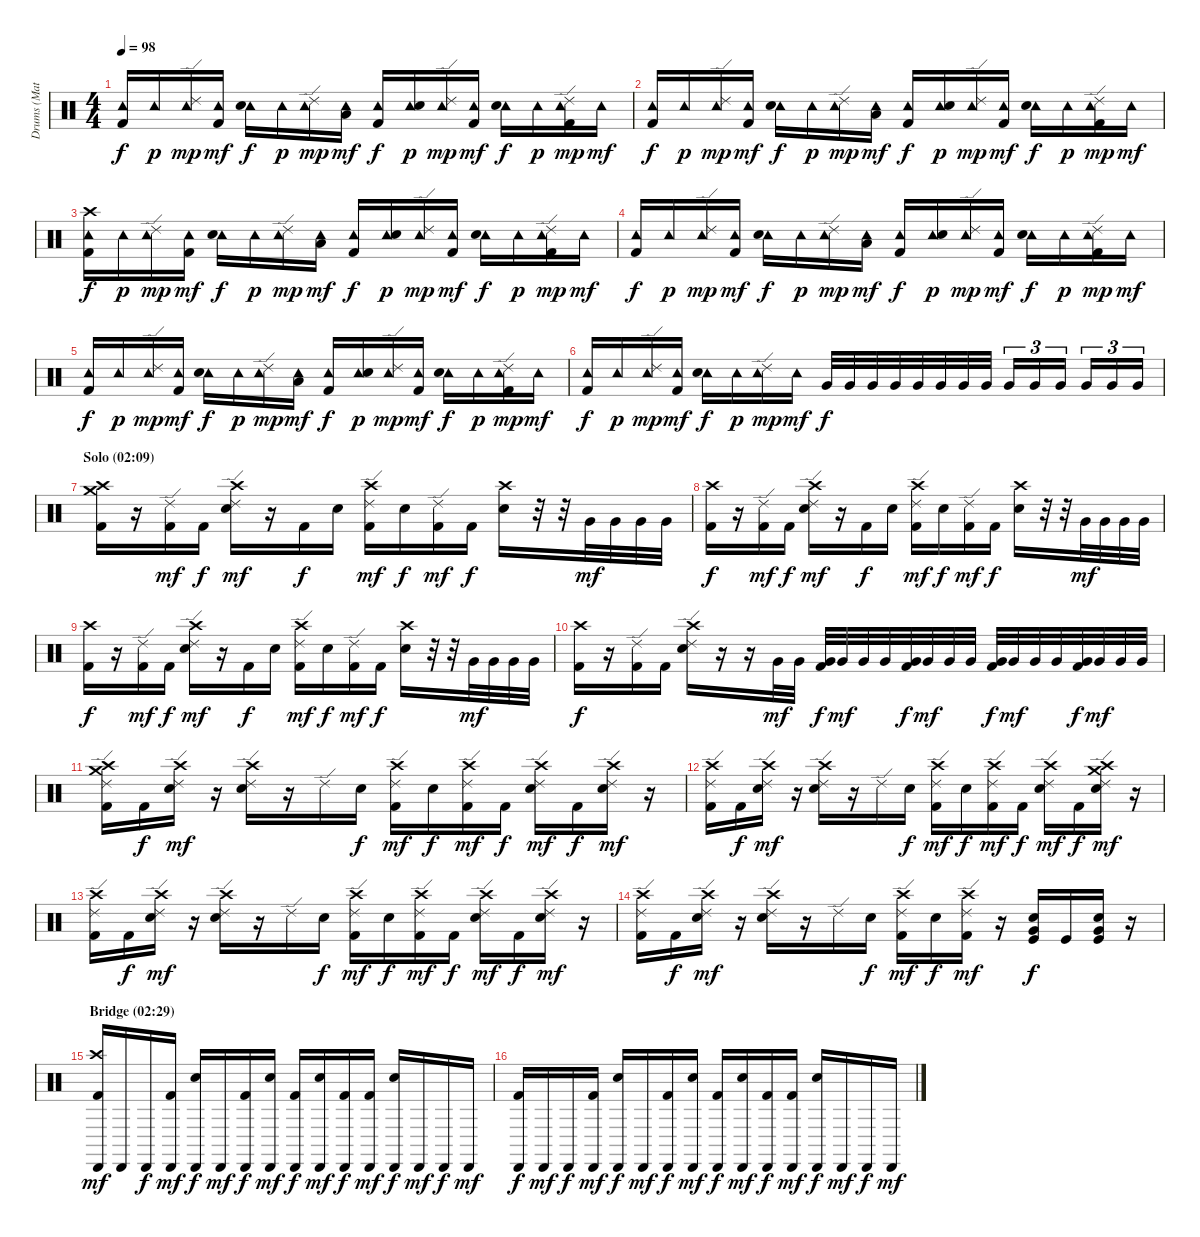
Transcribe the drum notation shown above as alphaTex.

\track ("Drums (Matt Sorum)" "Drums (Mat") {instrument percussion}
\staff {score}
\articulation defaults
\ts (4 4)
\tempo 98
\clef neutral
\ks c
("Tambourine (hit)" "Kick (hit) 2").16{dy f} "Tambourine (hit)".16{dy p} ("Tambourine (hit)" "Ride (edge) 2").16{dy mp} ("Tambourine (hit)" "Kick (hit) 2").16{dy mf} ("Tambourine (hit)" "Electric Snare (hit)").16{dy f} "Tambourine (hit)".16{dy p} ("Tambourine (hit)" "Ride (edge) 2").16{dy mp} ("Tambourine (hit)" "Low Tom (hit)").16{dy mf} ("Tambourine (hit)" "Kick (hit) 2").16{dy f} ("Tambourine (hit)" "Electric Snare (hit)").16{dy p} ("Tambourine (hit)" "Ride (edge) 2").16{dy mp} ("Tambourine (hit)" "Kick (hit) 2").16{dy mf} ("Tambourine (hit)" "Electric Snare (hit)").16{dy f} "Tambourine (hit)".16{dy p} ("Tambourine (hit)" "Ride (edge) 2" "Kick (hit) 2").16{dy mp} "Tambourine (hit)".16{dy mf} |
("Tambourine (hit)" "Kick (hit) 2").16{dy f} "Tambourine (hit)".16{dy p} ("Tambourine (hit)" "Ride (edge) 2").16{dy mp} ("Tambourine (hit)" "Kick (hit) 2").16{dy mf} ("Tambourine (hit)" "Electric Snare (hit)").16{dy f} "Tambourine (hit)".16{dy p} ("Tambourine (hit)" "Ride (edge) 2").16{dy mp} ("Tambourine (hit)" "Low Tom (hit)").16{dy mf} ("Tambourine (hit)" "Kick (hit) 2").16{dy f} ("Tambourine (hit)" "Electric Snare (hit)").16{dy p} ("Tambourine (hit)" "Ride (edge) 2").16{dy mp} ("Tambourine (hit)" "Kick (hit) 2").16{dy mf} ("Tambourine (hit)" "Electric Snare (hit)").16{dy f} "Tambourine (hit)".16{dy p} ("Tambourine (hit)" "Ride (edge) 2" "Kick (hit) 2").16{dy mp} "Tambourine (hit)".16{dy mf} |
("Tambourine (hit)" "Crash high (hit)" "Kick (hit) 2").16{dy f} "Tambourine (hit)".16{dy p} ("Tambourine (hit)" "Ride (edge) 2").16{dy mp} ("Tambourine (hit)" "Kick (hit) 2").16{dy mf} ("Tambourine (hit)" "Electric Snare (hit)").16{dy f} "Tambourine (hit)".16{dy p} ("Tambourine (hit)" "Ride (edge) 2").16{dy mp} ("Tambourine (hit)" "Low Tom (hit)").16{dy mf} ("Tambourine (hit)" "Kick (hit) 2").16{dy f} ("Tambourine (hit)" "Electric Snare (hit)").16{dy p} ("Tambourine (hit)" "Ride (edge) 2").16{dy mp} ("Tambourine (hit)" "Kick (hit) 2").16{dy mf} ("Tambourine (hit)" "Electric Snare (hit)").16{dy f} "Tambourine (hit)".16{dy p} ("Tambourine (hit)" "Ride (edge) 2" "Kick (hit) 2").16{dy mp} "Tambourine (hit)".16{dy mf} |
("Tambourine (hit)" "Kick (hit) 2").16{dy f} "Tambourine (hit)".16{dy p} ("Tambourine (hit)" "Ride (edge) 2").16{dy mp} ("Tambourine (hit)" "Kick (hit) 2").16{dy mf} ("Tambourine (hit)" "Electric Snare (hit)").16{dy f} "Tambourine (hit)".16{dy p} ("Tambourine (hit)" "Ride (edge) 2").16{dy mp} ("Tambourine (hit)" "Low Tom (hit)").16{dy mf} ("Tambourine (hit)" "Kick (hit) 2").16{dy f} ("Tambourine (hit)" "Electric Snare (hit)").16{dy p} ("Tambourine (hit)" "Ride (edge) 2").16{dy mp} ("Tambourine (hit)" "Kick (hit) 2").16{dy mf} ("Tambourine (hit)" "Electric Snare (hit)").16{dy f} "Tambourine (hit)".16{dy p} ("Tambourine (hit)" "Ride (edge) 2" "Kick (hit) 2").16{dy mp} "Tambourine (hit)".16{dy mf} |
("Tambourine (hit)" "Kick (hit) 2").16{dy f} "Tambourine (hit)".16{dy p} ("Tambourine (hit)" "Ride (edge) 2").16{dy mp} ("Tambourine (hit)" "Kick (hit) 2").16{dy mf} ("Tambourine (hit)" "Electric Snare (hit)").16{dy f} "Tambourine (hit)".16{dy p} ("Tambourine (hit)" "Ride (edge) 2").16{dy mp} ("Tambourine (hit)" "Low Tom (hit)").16{dy mf} ("Tambourine (hit)" "Kick (hit) 2").16{dy f} ("Tambourine (hit)" "Electric Snare (hit)").16{dy p} ("Tambourine (hit)" "Ride (edge) 2").16{dy mp} ("Tambourine (hit)" "Kick (hit) 2").16{dy mf} ("Tambourine (hit)" "Electric Snare (hit)").16{dy f} "Tambourine (hit)".16{dy p} ("Tambourine (hit)" "Ride (edge) 2" "Kick (hit) 2").16{dy mp} "Tambourine (hit)".16{dy mf} |
("Tambourine (hit)" "Kick (hit) 2").16{dy f} "Tambourine (hit)".16{dy p} ("Tambourine (hit)" "Ride (edge) 2").16{dy mp} ("Tambourine (hit)" "Kick (hit) 2").16{dy mf} ("Tambourine (hit)" "Electric Snare (hit)").16{dy f} "Tambourine (hit)".16{dy p} ("Tambourine (hit)" "Ride (edge) 2").16{dy mp} "Tambourine (hit)".16{dy mf} "Very Low Tom (hit)".32{dy f} "Very Low Tom (hit)".32 "Very Low Tom (hit)".32 "Very Low Tom (hit)".32 "Very Low Tom (hit)".32 "Very Low Tom (hit)".32 "Very Low Tom (hit)".32 "Very Low Tom (hit)".32 "Very Low Tom (hit)".16{tu (3 2)} "Very Low Tom (hit)".16{tu (3 2)} "Very Low Tom (hit)".16{tu (3 2)} "Very Low Tom (hit)".16{tu (3 2)} "Very Low Tom (hit)".16{tu (3 2)} "Very Low Tom (hit)".16{tu (3 2)} |
\section ("" "Solo (02:09)")
("Crash medium (hit)" "Crash high (hit)" "Kick (hit) 2").16 r.16 ("Ride (edge) 2" "Kick (hit) 2").16{dy mf} "Kick (hit) 2".16{dy f} ("Crash high (hit)" "Ride (edge) 2" "Electric Snare (hit)").16{dy mf} r.16 "Kick (hit) 2".16{dy f} "Electric Snare (hit)".16 ("Crash high (hit)" "Ride (edge) 2" "Kick (hit) 2").16{dy mf} "Electric Snare (hit)".16{dy f} ("Ride (edge) 2" "Kick (hit) 2").16{dy mf} "Kick (hit) 2".16{dy f} ("Crash high (hit)" "Electric Snare (hit)").16 r.32 r.32 "Very Low Tom (hit)".32{dy mf} "Very Low Tom (hit)".32 "Very Low Tom (hit)".32 "Very Low Tom (hit)".32 |
("Crash high (hit)" "Kick (hit) 2").16{dy f} r.16 ("Ride (edge) 2" "Kick (hit) 2").16{dy mf} "Kick (hit) 2".16{dy f} ("Crash high (hit)" "Ride (edge) 2" "Electric Snare (hit)").16{dy mf} r.16 "Kick (hit) 2".16{dy f} "Electric Snare (hit)".16 ("Crash high (hit)" "Ride (edge) 2" "Kick (hit) 2").16{dy mf} "Electric Snare (hit)".16{dy f} ("Ride (edge) 2" "Kick (hit) 2").16{dy mf} "Kick (hit) 2".16{dy f} ("Crash high (hit)" "Electric Snare (hit)").16 r.32 r.32 "Very Low Tom (hit)".32{dy mf} "Very Low Tom (hit)".32 "Very Low Tom (hit)".32 "Very Low Tom (hit)".32 |
("Crash high (hit)" "Kick (hit) 2").16{dy f} r.16 ("Ride (edge) 2" "Kick (hit) 2").16{dy mf} "Kick (hit) 2".16{dy f} ("Crash high (hit)" "Ride (edge) 2" "Electric Snare (hit)").16{dy mf} r.16 "Kick (hit) 2".16{dy f} "Electric Snare (hit)".16 ("Crash high (hit)" "Ride (edge) 2" "Kick (hit) 2").16{dy mf} "Electric Snare (hit)".16{dy f} ("Ride (edge) 2" "Kick (hit) 2").16{dy mf} "Kick (hit) 2".16{dy f} ("Crash high (hit)" "Electric Snare (hit)").16 r.32 r.32 "Very Low Tom (hit)".32{dy mf} "Very Low Tom (hit)".32 "Very Low Tom (hit)".32 "Very Low Tom (hit)".32 |
("Crash high (hit)" "Kick (hit) 2").16{dy f} r.16 ("Ride (edge) 2" "Kick (hit) 2").16 "Kick (hit) 2".16 ("Crash high (hit)" "Ride (edge) 2" "Electric Snare (hit)").16 r.16 r.16 "Very Low Tom (hit)".32{dy mf} "Very Low Tom (hit)".32 ("Very Low Tom (hit)" "Kick (hit) 2").32{dy f} "Very Low Tom (hit)".32{dy mf} "Very Low Tom (hit)".32 "Very Low Tom (hit)".32 ("Very Low Tom (hit)" "Kick (hit) 2").32{dy f} "Very Low Tom (hit)".32{dy mf} "Very Low Tom (hit)".32 "Very Low Tom (hit)".32 ("Very Low Tom (hit)" "Kick (hit) 2").32{dy f} "Very Low Tom (hit)".32{dy mf} "Very Low Tom (hit)".32 "Very Low Tom (hit)".32 ("Very Low Tom (hit)" "Kick (hit) 2").32{dy f} "Very Low Tom (hit)".32{dy mf} "Very Low Tom (hit)".32 "Very Low Tom (hit)".32 |
("Crash medium (hit)" "Crash high (hit)" "Ride (edge) 2" "Kick (hit) 2").16 "Kick (hit) 2".16{dy f} ("Crash high (hit)" "Ride (edge) 2" "Electric Snare (hit)").16{dy mf} r.16 ("Crash high (hit)" "Ride (edge) 2" "Electric Snare (hit)").16 r.16 "Ride (edge) 2".16 "Electric Snare (hit)".16{dy f} ("Crash high (hit)" "Ride (edge) 2" "Kick (hit) 2").16{dy mf} "Electric Snare (hit)".16{dy f} ("Crash high (hit)" "Ride (edge) 2" "Kick (hit) 2").16{dy mf} "Kick (hit) 2".16{dy f} ("Crash high (hit)" "Ride (edge) 2" "Electric Snare (hit)").16{dy mf} "Kick (hit) 2".16{dy f} ("Crash high (hit)" "Ride (edge) 2" "Electric Snare (hit)").16{dy mf} r.16 |
("Crash high (hit)" "Ride (edge) 2" "Kick (hit) 2").16 "Kick (hit) 2".16{dy f} ("Crash high (hit)" "Ride (edge) 2" "Electric Snare (hit)").16{dy mf} r.16 ("Crash high (hit)" "Ride (edge) 2" "Electric Snare (hit)").16 r.16 "Ride (edge) 2".16 "Electric Snare (hit)".16{dy f} ("Crash high (hit)" "Ride (edge) 2" "Kick (hit) 2").16{dy mf} "Electric Snare (hit)".16{dy f} ("Crash high (hit)" "Ride (edge) 2" "Kick (hit) 2").16{dy mf} "Kick (hit) 2".16{dy f} ("Crash high (hit)" "Ride (edge) 2" "Electric Snare (hit)").16{dy mf} "Kick (hit) 2".16{dy f} ("Crash medium (hit)" "Crash high (hit)" "Ride (edge) 2" "Electric Snare (hit)").16{dy mf} r.16 |
("Crash high (hit)" "Ride (edge) 2" "Kick (hit) 2").16 "Kick (hit) 2".16{dy f} ("Crash high (hit)" "Ride (edge) 2" "Electric Snare (hit)").16{dy mf} r.16 ("Crash high (hit)" "Ride (edge) 2" "Electric Snare (hit)").16 r.16 "Ride (edge) 2".16 "Electric Snare (hit)".16{dy f} ("Crash high (hit)" "Ride (edge) 2" "Kick (hit) 2").16{dy mf} "Electric Snare (hit)".16{dy f} ("Crash high (hit)" "Ride (edge) 2" "Kick (hit) 2").16{dy mf} "Kick (hit) 2".16{dy f} ("Crash high (hit)" "Ride (edge) 2" "Electric Snare (hit)").16{dy mf} "Kick (hit) 2".16{dy f} ("Crash high (hit)" "Ride (edge) 2" "Electric Snare (hit)").16{dy mf} r.16 |
("Crash high (hit)" "Ride (edge) 2" "Kick (hit) 2").16 "Kick (hit) 2".16{dy f} ("Crash high (hit)" "Ride (edge) 2" "Electric Snare (hit)").16{dy mf} r.16 ("Crash high (hit)" "Ride (edge) 2" "Electric Snare (hit)").16 r.16 "Ride (edge) 2".16 "Electric Snare (hit)".16{dy f} ("Crash high (hit)" "Ride (edge) 2" "Kick (hit) 2").16{dy mf} "Electric Snare (hit)".16{dy f} ("Crash high (hit)" "Ride (edge) 2" "Kick (hit) 2").16{dy mf} r.16 ("Electric Snare (hit)" "Very Low Tom (hit)" "Kick (hit)").16{dy f} "Kick (hit)".16 ("Electric Snare (hit)" "Very Low Tom (hit)" "Kick (hit)").16 r.16 |
\section ("" "Bridge (02:29)")
("Cabasa (hit)" "Crash high (hit)" "Kick (hit) 2").16{dy mf} "Cabasa (hit)".16 "Cabasa (hit)".16{dy f} ("Cabasa (hit)" "Kick (hit) 2").16{dy mf} ("Cabasa (hit)" "Electric Snare (hit)").16{dy f} "Cabasa (hit)".16{dy mf} ("Cabasa (hit)" "Kick (hit) 2").16{dy f} ("Cabasa (hit)" "Electric Snare (hit)").16{dy mf} ("Cabasa (hit)" "Kick (hit) 2").16{dy f} ("Cabasa (hit)" "Electric Snare (hit)").16{dy mf} ("Cabasa (hit)" "Kick (hit) 2").16{dy f} ("Cabasa (hit)" "Kick (hit) 2").16{dy mf} ("Cabasa (hit)" "Electric Snare (hit)").16{dy f} "Cabasa (hit)".16{dy mf} "Cabasa (hit)".16{dy f} "Cabasa (hit)".16{dy mf} |
("Cabasa (hit)" "Kick (hit) 2").16{dy f} "Cabasa (hit)".16{dy mf} "Cabasa (hit)".16{dy f} ("Cabasa (hit)" "Kick (hit) 2").16{dy mf} ("Cabasa (hit)" "Electric Snare (hit)").16{dy f} "Cabasa (hit)".16{dy mf} ("Cabasa (hit)" "Kick (hit) 2").16{dy f} ("Cabasa (hit)" "Electric Snare (hit)").16{dy mf} ("Cabasa (hit)" "Kick (hit) 2").16{dy f} ("Cabasa (hit)" "Electric Snare (hit)").16{dy mf} ("Cabasa (hit)" "Kick (hit) 2").16{dy f} ("Cabasa (hit)" "Kick (hit) 2").16{dy mf} ("Cabasa (hit)" "Electric Snare (hit)").16{dy f} "Cabasa (hit)".16{dy mf} "Cabasa (hit)".16{dy f} "Cabasa (hit)".16{dy mf}
